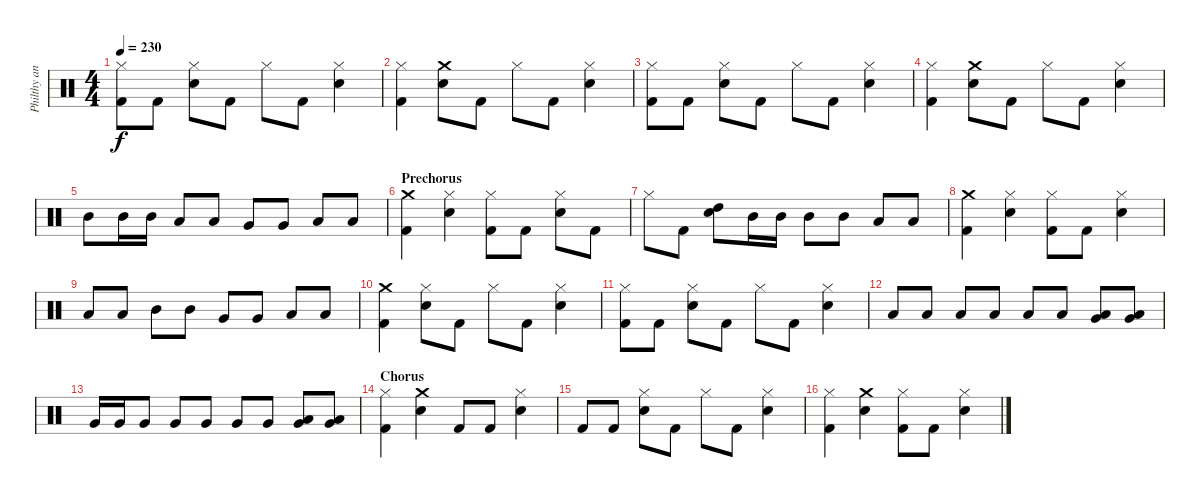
\track ("Philthy animal Taylor" "Philthy an") {instrument percussion}
\staff {score}
\articulation defaults
\ts (4 4)
\tempo 230
\clef neutral
\ks c
("Hi-Hat (closed)" "Kick (hit) 2").8{dy f} "Kick (hit) 2".8 ("Hi-Hat (closed)" "Snare (hit) 2").8 "Kick (hit) 2".8 "Hi-Hat (closed)".8 "Kick (hit) 2".8 ("Hi-Hat (closed)" "Snare (hit) 2").4 |
("Hi-Hat (closed)" "Kick (hit) 2").4 ("Crash medium (hit)" "Snare (hit) 2").8 "Kick (hit) 2".8 "Hi-Hat (closed)".8 "Kick (hit) 2".8 ("Hi-Hat (closed)" "Snare (hit) 2").4 |
("Hi-Hat (closed)" "Kick (hit) 2").8 "Kick (hit) 2".8 ("Hi-Hat (closed)" "Snare (hit) 2").8 "Kick (hit) 2".8 "Hi-Hat (closed)".8 "Kick (hit) 2".8 ("Hi-Hat (closed)" "Snare (hit) 2").4 |
("Hi-Hat (closed)" "Kick (hit) 2").4 ("Crash medium (hit)" "Snare (hit) 2").8 "Kick (hit) 2".8 "Hi-Hat (closed)".8 "Kick (hit) 2".8 ("Hi-Hat (closed)" "Snare (hit) 2").4 |
"Mid Tom (hit)".8 "Mid Tom (hit)".16 "Mid Tom (hit)".16 "Low Tom (hit)".8 "Low Tom (hit)".8 "Very Low Tom (hit)".8 "Very Low Tom (hit)".8 "Low Floor Tom (hit)".8 "Low Floor Tom (hit)".8 |
\section ("" "Prechorus")
("Crash medium (hit)" "Kick (hit) 2").4 ("Hi-Hat (closed)" "Snare (hit) 2").4 ("Hi-Hat (closed)" "Kick (hit) 2").8 "Kick (hit) 2".8 ("Hi-Hat (closed)" "Snare (hit) 2").8 "Kick (hit) 2".8 |
"Hi-Hat (closed)".8 "Kick (hit) 2".8 ("High Tom (hit)" "Snare (hit) 2").8 "Mid Tom (hit)".16 "Mid Tom (hit)".16 "Mid Tom (hit)".8 "Mid Tom (hit)".8 "Low Tom (hit)".8 "Low Tom (hit)".8 |
("Crash medium (hit)" "Kick (hit) 2").4 ("Hi-Hat (closed)" "Snare (hit) 2").4 ("Hi-Hat (closed)" "Kick (hit) 2").8 "Kick (hit) 2".8 ("Hi-Hat (closed)" "Snare (hit) 2").4 |
"Low Tom (hit)".8 "Low Tom (hit)".8 "Mid Tom (hit)".8 "Mid Tom (hit)".8 "Very Low Tom (hit)".8 "Very Low Tom (hit)".8 "Low Floor Tom (hit)".8 "Low Floor Tom (hit)".8 |
("Crash medium (hit)" "Kick (hit) 2").4 ("Hi-Hat (closed)" "Snare (hit) 2").8 "Kick (hit) 2".8 "Hi-Hat (closed)".8 "Kick (hit) 2".8 ("Hi-Hat (closed)" "Snare (hit) 2").4 |
("Hi-Hat (closed)" "Kick (hit) 2").8 "Kick (hit) 2".8 ("Hi-Hat (closed)" "Snare (hit) 2").8 "Kick (hit) 2".8 "Hi-Hat (closed)".8 "Kick (hit) 2".8 ("Hi-Hat (closed)" "Snare (hit) 2").4 |
"Low Tom (hit)".8 "Low Tom (hit)".8 "Low Tom (hit)".8 "Low Tom (hit)".8 "Low Tom (hit)".8 "Low Tom (hit)".8 ("Low Tom (hit)" "Very Low Tom (hit)").8 ("Low Tom (hit)" "Very Low Tom (hit)").8 |
"Very Low Tom (hit)".16 "Very Low Tom (hit)".16 "Very Low Tom (hit)".8 "Very Low Tom (hit)".8 "Very Low Tom (hit)".8 "Very Low Tom (hit)".8 "Very Low Tom (hit)".8 ("Very Low Tom (hit)" "Low Floor Tom (hit)").8 ("Very Low Tom (hit)" "Low Floor Tom (hit)").8 |
\section ("" "Chorus")
("Hi-Hat (closed)" "Kick (hit) 2").4 ("Crash medium (hit)" "Snare (hit) 2").4 "Kick (hit) 2".8 "Kick (hit) 2".8 ("Hi-Hat (closed)" "Snare (hit) 2").4 |
"Kick (hit) 2".8 "Kick (hit) 2".8 ("Hi-Hat (closed)" "Snare (hit) 2").8 "Kick (hit) 2".8 "Hi-Hat (closed)".8 "Kick (hit) 2".8 ("Hi-Hat (closed)" "Snare (hit) 2").4 |
("Hi-Hat (closed)" "Kick (hit) 2").4 ("Crash medium (hit)" "Snare (hit) 2").4 ("Hi-Hat (closed)" "Kick (hit) 2").8 "Kick (hit) 2".8 ("Hi-Hat (closed)" "Snare (hit) 2").4
